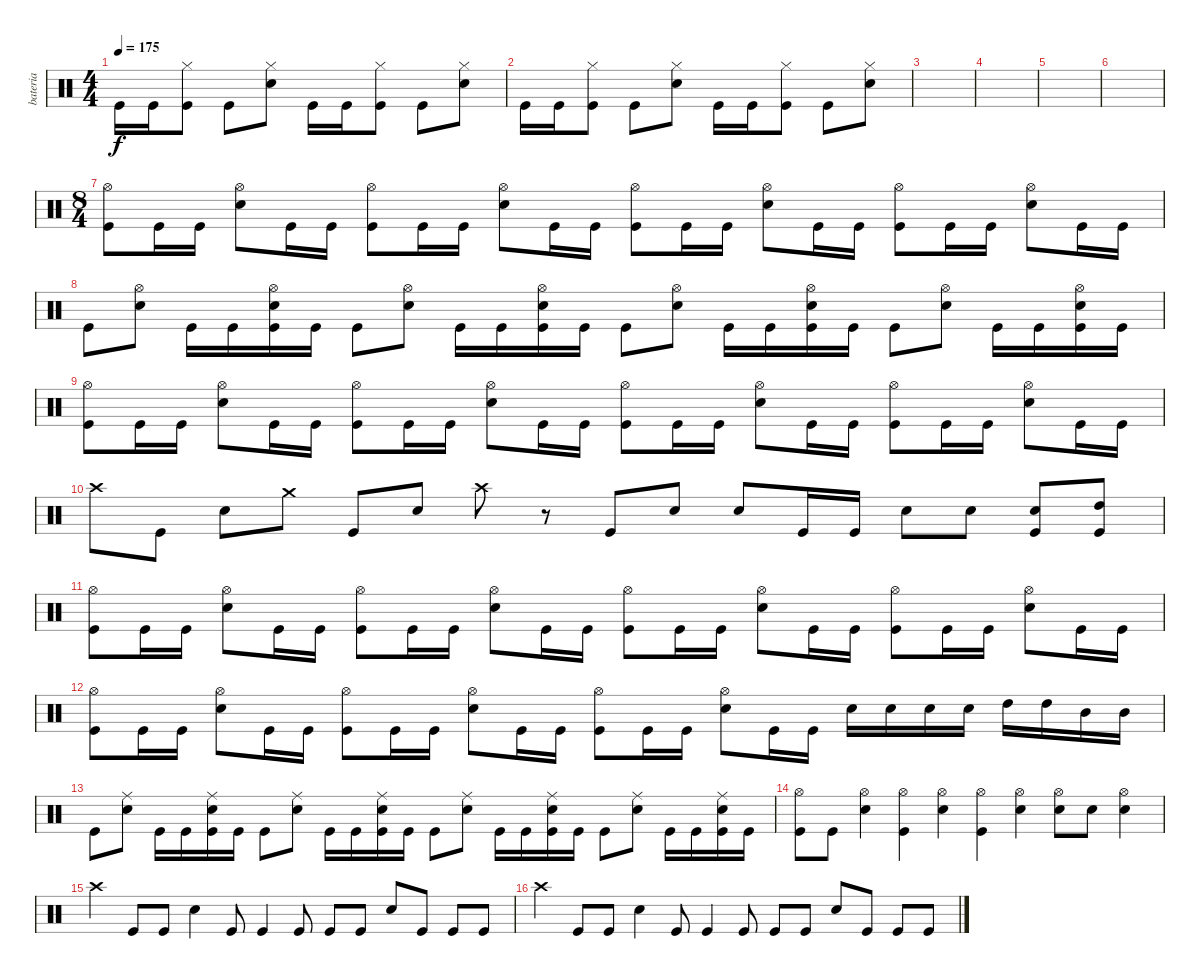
\track ("bateria" "bateria") {instrument percussion}
\staff {score}
\articulation defaults
\ts (4 4)
\tempo 175
\clef neutral
\ks c "Kick (hit)".16{dy f} "Kick (hit)".16
("Kick (hit)" "Hi-Hat (closed)").8 "Kick (hit)".8 ("Snare (hit) 2" "Hi-Hat (closed)").8 "Kick (hit)".16 "Kick (hit)".16 ("Kick (hit)" "Hi-Hat (closed)").8 "Kick (hit)".8 ("Snare (hit) 2" "Hi-Hat (closed)").8 |
"Kick (hit)".16 "Kick (hit)".16 ("Kick (hit)" "Hi-Hat (closed)").8 "Kick (hit)".8 ("Snare (hit) 2" "Hi-Hat (closed)").8 "Kick (hit)".16 "Kick (hit)".16 ("Kick (hit)" "Hi-Hat (closed)").8 "Kick (hit)".8 ("Snare (hit) 2" "Hi-Hat (closed)").8 |
|
|
|
|
\ts (8 4)
("Kick (hit)" "Hi-Hat (open)").8 "Kick (hit)".16 "Kick (hit)".16 ("Snare (hit) 2" "Hi-Hat (open)").8 "Kick (hit)".16 "Kick (hit)".16 ("Kick (hit)" "Hi-Hat (open)").8 "Kick (hit)".16 "Kick (hit)".16 ("Snare (hit) 2" "Hi-Hat (open)").8 "Kick (hit)".16 "Kick (hit)".16 ("Kick (hit)" "Hi-Hat (open)").8 "Kick (hit)".16 "Kick (hit)".16 ("Snare (hit) 2" "Hi-Hat (open)").8 "Kick (hit)".16 "Kick (hit)".16 ("Kick (hit)" "Hi-Hat (open)").8 "Kick (hit)".16 "Kick (hit)".16 ("Snare (hit) 2" "Hi-Hat (open)").8 "Kick (hit)".16 "Kick (hit)".16 |
"Kick (hit)".8 ("Snare (hit) 2" "Hi-Hat (open)").8 "Kick (hit)".16 "Kick (hit)".16 ("Kick (hit)" "Snare (hit) 2" "Hi-Hat (open)").16 "Kick (hit)".16 "Kick (hit)".8 ("Snare (hit) 2" "Hi-Hat (open)").8 "Kick (hit)".16 "Kick (hit)".16 ("Kick (hit)" "Snare (hit) 2" "Hi-Hat (open)").16 "Kick (hit)".16 "Kick (hit)".8 ("Snare (hit) 2" "Hi-Hat (open)").8 "Kick (hit)".16 "Kick (hit)".16 ("Kick (hit)" "Snare (hit) 2" "Hi-Hat (open)").16 "Kick (hit)".16 "Kick (hit)".8 ("Snare (hit) 2" "Hi-Hat (open)").8 "Kick (hit)".16 "Kick (hit)".16 ("Kick (hit)" "Snare (hit) 2" "Hi-Hat (open)").16 "Kick (hit)".16 |
("Kick (hit)" "Hi-Hat (open)").8 "Kick (hit)".16 "Kick (hit)".16 ("Snare (hit) 2" "Hi-Hat (open)").8 "Kick (hit)".16 "Kick (hit)".16 ("Kick (hit)" "Hi-Hat (open)").8 "Kick (hit)".16 "Kick (hit)".16 ("Snare (hit) 2" "Hi-Hat (open)").8 "Kick (hit)".16 "Kick (hit)".16 ("Kick (hit)" "Hi-Hat (open)").8 "Kick (hit)".16 "Kick (hit)".16 ("Snare (hit) 2" "Hi-Hat (open)").8 "Kick (hit)".16 "Kick (hit)".16 ("Kick (hit)" "Hi-Hat (open)").8 "Kick (hit)".16 "Kick (hit)".16 ("Snare (hit) 2" "Hi-Hat (open)").8 "Kick (hit)".16 "Kick (hit)".16 |
"Crash high (hit)".8 "Kick (hit)".8 "Snare (hit) 2".8 "Crash medium (hit)".8 "Kick (hit)".8 "Snare (hit) 2".8 "Crash high (hit)".8 r.8 "Kick (hit)".8 "Snare (hit) 2".8 "Snare (hit) 2".8 "Kick (hit)".16 "Kick (hit)".16 "Snare (hit) 2".8 "Snare (hit) 2".8 ("Kick (hit)" "Snare (hit) 2").8 ("Kick (hit)" "High Tom (hit)").8 |
("Kick (hit)" "Hi-Hat (open)").8 "Kick (hit)".16 "Kick (hit)".16 ("Snare (hit) 2" "Hi-Hat (open)").8 "Kick (hit)".16 "Kick (hit)".16 ("Kick (hit)" "Hi-Hat (open)").8 "Kick (hit)".16 "Kick (hit)".16 ("Snare (hit) 2" "Hi-Hat (open)").8 "Kick (hit)".16 "Kick (hit)".16 ("Kick (hit)" "Hi-Hat (open)").8 "Kick (hit)".16 "Kick (hit)".16 ("Snare (hit) 2" "Hi-Hat (open)").8 "Kick (hit)".16 "Kick (hit)".16 ("Kick (hit)" "Hi-Hat (open)").8 "Kick (hit)".16 "Kick (hit)".16 ("Snare (hit) 2" "Hi-Hat (open)").8 "Kick (hit)".16 "Kick (hit)".16 |
("Kick (hit)" "Hi-Hat (open)").8 "Kick (hit)".16 "Kick (hit)".16 ("Snare (hit) 2" "Hi-Hat (open)").8 "Kick (hit)".16 "Kick (hit)".16 ("Kick (hit)" "Hi-Hat (open)").8 "Kick (hit)".16 "Kick (hit)".16 ("Snare (hit) 2" "Hi-Hat (open)").8 "Kick (hit)".16 "Kick (hit)".16 ("Kick (hit)" "Hi-Hat (open)").8 "Kick (hit)".16 "Kick (hit)".16 ("Snare (hit) 2" "Hi-Hat (open)").8 "Kick (hit)".16 "Kick (hit)".16 "Snare (hit) 2".16 "Snare (hit) 2".16 "Snare (hit) 2".16 "Snare (hit) 2".16 "High Tom (hit)".16 "High Tom (hit)".16 "Mid Tom (hit)".16 "Mid Tom (hit)".16 |
"Kick (hit)".8 ("Snare (hit) 2" "Ride (middle)").8 "Kick (hit)".16 "Kick (hit)".16 ("Kick (hit)" "Snare (hit) 2" "Ride (middle)").16 "Kick (hit)".16 "Kick (hit)".8 ("Snare (hit) 2" "Ride (middle)").8 "Kick (hit)".16 "Kick (hit)".16 ("Kick (hit)" "Snare (hit) 2" "Ride (middle)").16 "Kick (hit)".16 "Kick (hit)".8 ("Snare (hit) 2" "Ride (middle)").8 "Kick (hit)".16 "Kick (hit)".16 ("Kick (hit)" "Snare (hit) 2" "Ride (middle)").16 "Kick (hit)".16 "Kick (hit)".8 ("Snare (hit) 2" "Ride (middle)").8 "Kick (hit)".16 "Kick (hit)".16 ("Kick (hit)" "Snare (hit) 2" "Ride (middle)").16 "Kick (hit)".16 |
("Hi-Hat (open)" "Kick (hit)").8 "Kick (hit)".8 ("Hi-Hat (open)" "Snare (hit) 2").4 ("Hi-Hat (open)" "Kick (hit)").4 ("Hi-Hat (open)" "Snare (hit) 2").4 ("Hi-Hat (open)" "Kick (hit)").4 ("Hi-Hat (open)" "Snare (hit) 2").4 ("Hi-Hat (open)" "Snare (hit) 2").8 "Snare (hit) 2".8 ("Hi-Hat (open)" "Snare (hit) 2").4 |
"Crash high (hit)".4 "Kick (hit)".8 "Kick (hit)".8 "Snare (hit) 2".4 "Kick (hit)".8 "Kick (hit)".4 "Kick (hit)".8 "Kick (hit)".8 "Kick (hit)".8 "Snare (hit) 2".8 "Kick (hit)".8 "Kick (hit)".8 "Kick (hit)".8 |
"Crash high (hit)".4 "Kick (hit)".8 "Kick (hit)".8 "Snare (hit) 2".4 "Kick (hit)".8 "Kick (hit)".4 "Kick (hit)".8 "Kick (hit)".8 "Kick (hit)".8 "Snare (hit) 2".8 "Kick (hit)".8 "Kick (hit)".8 "Kick (hit)".8
